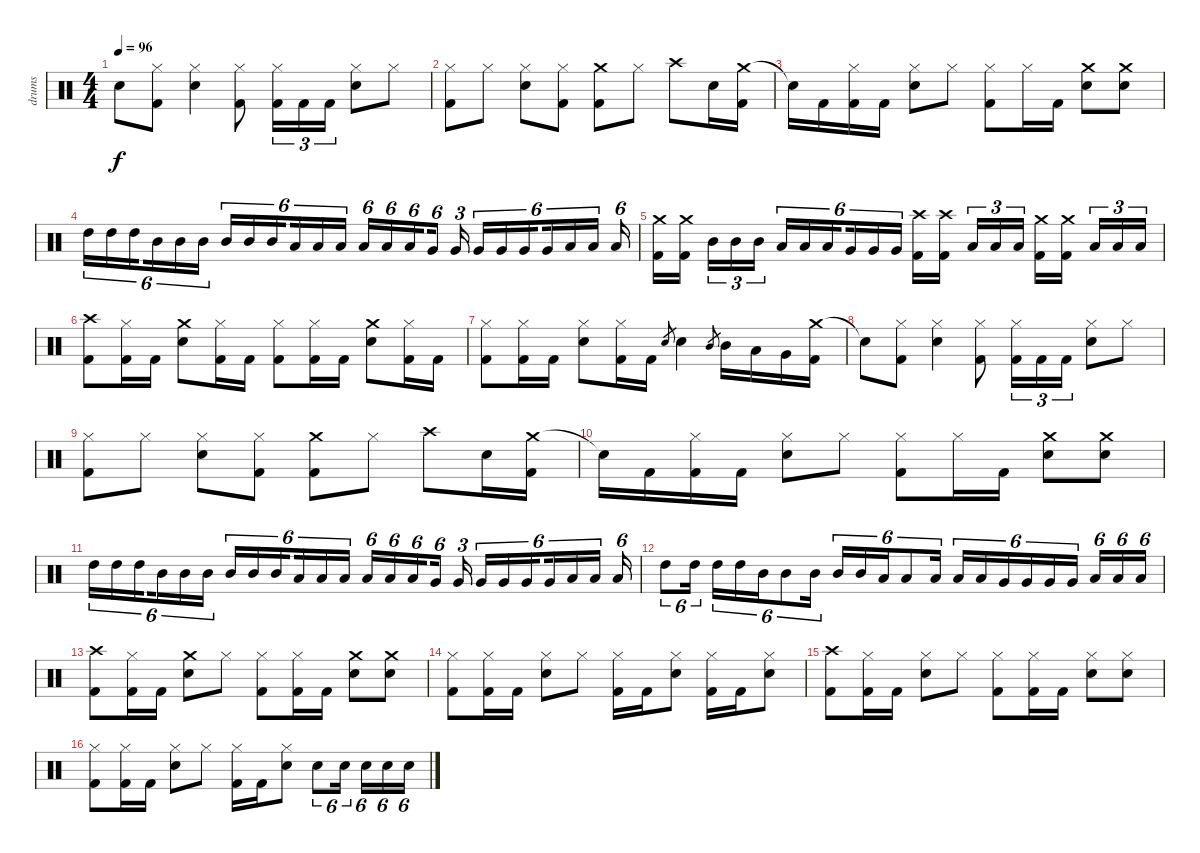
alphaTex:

\track ("drums" "drums") {instrument percussion}
\staff {score}
\articulation defaults
\ts (4 4)
\tempo 96
\clef neutral
\ks c "Snare (hit)"{t}.8{dy f}
("Hi-Hat (closed)" "Kick (hit) 2").8 ("Hi-Hat (closed)" "Electric Snare (hit)").4 ("Hi-Hat (closed)" "Kick (hit) 2").8 ("Hi-Hat (closed)" "Kick (hit) 2").16{tu (3 2)} "Kick (hit) 2".16{tu (3 2)} "Kick (hit) 2".16{tu (3 2)} ("Hi-Hat (closed)" "Electric Snare (hit)").8 "Hi-Hat (closed)".8 |
("Hi-Hat (closed)" "Kick (hit) 2").8 "Hi-Hat (closed)".8 ("Hi-Hat (closed)" "Electric Snare (hit)").8 ("Hi-Hat (closed)" "Kick (hit) 2").8 ("Crash medium (hit)" "Kick (hit) 2").8 "Hi-Hat (closed)".8 "Crash high (hit)".8 "Electric Snare (hit)".16 ("Crash medium (hit)" "Kick (hit) 2").16 |
"Snare (hit)"{t}.16 "Kick (hit) 2".16 ("Hi-Hat (closed)" "Kick (hit) 2").16 "Kick (hit) 2".16 ("Hi-Hat (closed)" "Electric Snare (hit)").8 "Hi-Hat (closed)".8 ("Hi-Hat (closed)" "Kick (hit) 2").8 "Hi-Hat (closed)".16 "Kick (hit) 2".16 ("Crash medium (hit)" "Electric Snare (hit)").8 ("Crash medium (hit)" "Electric Snare (hit)").8 |
"High Tom (hit)".16{tu (6 4)} "High Tom (hit)".16{tu (6 4)} "High Tom (hit)".16{tu (6 4) beam splitsecondary} "Mid Tom (hit)".16{tu (6 4)} "Mid Tom (hit)".16{tu (6 4)} "Mid Tom (hit)".16{tu (6 4)} "Mid Tom (hit)".16{tu (6 4)} "Mid Tom (hit)".16{tu (6 4)} "Mid Tom (hit)".16{tu (6 4) beam splitsecondary} "Low Tom (hit)".16{tu (6 4)} "Low Tom (hit)".16{tu (6 4)} "Low Tom (hit)".16{tu (6 4)} "Low Tom (hit)".16{tu (6 4)} "Low Tom (hit)".16{tu (6 4)} "Low Tom (hit)".16{tu (6 4) beam splitsecondary} "Very Low Tom (hit)".16{tu (6 4)} "Very Low Tom (hit)".16{tu (3 2)} "Very Low Tom (hit)".16{tu (6 4)} "Very Low Tom (hit)".16{tu (6 4)} "Very Low Tom (hit)".16{tu (6 4) beam splitsecondary} "Very Low Tom (hit)".16{tu (6 4)} "Low Floor Tom (hit)".16{tu (6 4)} "Low Floor Tom (hit)".16{tu (6 4) beam splitsecondary} "Low Floor Tom (hit)".16{tu (6 4)} |
("Crash medium (hit)" "Kick (hit) 2").16 ("Crash medium (hit)" "Kick (hit) 2").16{beam splitsecondary} "Mid Tom (hit)".16{tu (3 2)} "Mid Tom (hit)".16{tu (3 2)} "Mid Tom (hit)".16{tu (3 2)} "Low Tom (hit)".16{tu (6 4)} "Low Tom (hit)".16{tu (6 4)} "Low Tom (hit)".16{tu (6 4) beam splitsecondary} "Very Low Tom (hit)".16{tu (6 4)} "Very Low Tom (hit)".16{tu (6 4)} "Very Low Tom (hit)".16{tu (6 4)} ("Crash high (hit)" "Kick (hit) 2").16 ("Crash high (hit)" "Kick (hit) 2").16{beam splitsecondary} "Low Tom (hit)".16{tu (3 2)} "Low Tom (hit)".16{tu (3 2)} "Low Tom (hit)".16{tu (3 2)} ("Crash medium (hit)" "Kick (hit) 2").16 ("Crash medium (hit)" "Kick (hit) 2").16{beam splitsecondary} "Low Tom (hit)".16{tu (3 2)} "Low Tom (hit)".16{tu (3 2)} "Low Tom (hit)".16{tu (3 2)} |
("Crash high (hit)" "Kick (hit) 2").8 ("Hi-Hat (closed)" "Kick (hit) 2").16 "Kick (hit) 2".16 ("Crash medium (hit)" "Electric Snare (hit)").8 ("Hi-Hat (closed)" "Kick (hit) 2").16 "Kick (hit) 2".16 ("Hi-Hat (closed)" "Kick (hit) 2").8 ("Hi-Hat (closed)" "Kick (hit) 2").16 "Kick (hit) 2".16 ("Crash medium (hit)" "Electric Snare (hit)").8 ("Hi-Hat (closed)" "Kick (hit) 2").16 "Kick (hit) 2".16 |
("Hi-Hat (closed)" "Kick (hit) 2").8 ("Hi-Hat (closed)" "Kick (hit) 2").16 "Kick (hit) 2".16 ("Hi-Hat (closed)" "Electric Snare (hit)").8 ("Hi-Hat (closed)" "Kick (hit) 2").16 "Kick (hit) 2".16 "Electric Snare (hit)".8{gr} "Electric Snare (hit)".4 "Mid Tom (hit)".8{gr} "Mid Tom (hit)".16 "Low Tom (hit)".16 "Very Low Tom (hit)".16 ("Crash medium (hit)" "Kick (hit) 2").16 |
"Snare (hit)"{t}.8 ("Hi-Hat (closed)" "Kick (hit) 2").8 ("Hi-Hat (closed)" "Electric Snare (hit)").4 ("Hi-Hat (closed)" "Kick (hit) 2").8 ("Hi-Hat (closed)" "Kick (hit) 2").16{tu (3 2)} "Kick (hit) 2".16{tu (3 2)} "Kick (hit) 2".16{tu (3 2)} ("Hi-Hat (closed)" "Electric Snare (hit)").8 "Hi-Hat (closed)".8 |
("Hi-Hat (closed)" "Kick (hit) 2").8 "Hi-Hat (closed)".8 ("Hi-Hat (closed)" "Electric Snare (hit)").8 ("Hi-Hat (closed)" "Kick (hit) 2").8 ("Crash medium (hit)" "Kick (hit) 2").8 "Hi-Hat (closed)".8 "Crash high (hit)".8 "Electric Snare (hit)".16 ("Crash medium (hit)" "Kick (hit) 2").16 |
"Snare (hit)"{t}.16 "Kick (hit) 2".16 ("Hi-Hat (closed)" "Kick (hit) 2").16 "Kick (hit) 2".16 ("Hi-Hat (closed)" "Electric Snare (hit)").8 "Hi-Hat (closed)".8 ("Hi-Hat (closed)" "Kick (hit) 2").8 "Hi-Hat (closed)".16 "Kick (hit) 2".16 ("Crash medium (hit)" "Electric Snare (hit)").8 ("Crash medium (hit)" "Electric Snare (hit)").8 |
"High Tom (hit)".16{tu (6 4)} "High Tom (hit)".16{tu (6 4)} "High Tom (hit)".16{tu (6 4) beam splitsecondary} "Mid Tom (hit)".16{tu (6 4)} "Mid Tom (hit)".16{tu (6 4)} "Mid Tom (hit)".16{tu (6 4)} "Mid Tom (hit)".16{tu (6 4)} "Mid Tom (hit)".16{tu (6 4)} "Mid Tom (hit)".16{tu (6 4) beam splitsecondary} "Low Tom (hit)".16{tu (6 4)} "Low Tom (hit)".16{tu (6 4)} "Low Tom (hit)".16{tu (6 4)} "Low Tom (hit)".16{tu (6 4)} "Low Tom (hit)".16{tu (6 4)} "Low Tom (hit)".16{tu (6 4) beam splitsecondary} "Very Low Tom (hit)".16{tu (6 4)} "Very Low Tom (hit)".16{tu (3 2)} "Very Low Tom (hit)".16{tu (6 4)} "Very Low Tom (hit)".16{tu (6 4)} "Very Low Tom (hit)".16{tu (6 4) beam splitsecondary} "Very Low Tom (hit)".16{tu (6 4)} "Low Floor Tom (hit)".16{tu (6 4)} "Low Floor Tom (hit)".16{tu (6 4) beam splitsecondary} "Low Floor Tom (hit)".16{tu (6 4)} |
"High Tom (hit)".8{tu (6 4)} "High Tom (hit)".16{tu (6 4) beam splitsecondary} "High Tom (hit)".16{tu (6 4)} "High Tom (hit)".16{tu (6 4)} "Mid Tom (hit)".16{tu (6 4)} "Mid Tom (hit)".8{tu (6 4)} "Mid Tom (hit)".16{tu (6 4) beam splitsecondary} "Mid Tom (hit)".16{tu (6 4)} "Mid Tom (hit)".16{tu (6 4)} "Low Tom (hit)".16{tu (6 4)} "Low Tom (hit)".8{tu (6 4)} "Low Tom (hit)".16{tu (6 4) beam splitsecondary} "Low Tom (hit)".16{tu (6 4)} "Low Tom (hit)".16{tu (6 4)} "Very Low Tom (hit)".16{tu (6 4)} "Very Low Tom (hit)".16{tu (6 4)} "Very Low Tom (hit)".16{tu (6 4)} "Very Low Tom (hit)".16{tu (6 4) beam splitsecondary} "Low Floor Tom (hit)".16{tu (6 4)} "Low Floor Tom (hit)".16{tu (6 4)} "Low Floor Tom (hit)".16{tu (6 4)} |
("Crash high (hit)" "Kick (hit) 2").8 ("Hi-Hat (closed)" "Kick (hit) 2").16 "Kick (hit) 2".16 ("Crash medium (hit)" "Electric Snare (hit)").8 "Hi-Hat (closed)".8 ("Hi-Hat (closed)" "Kick (hit) 2").8 ("Hi-Hat (closed)" "Kick (hit) 2").16 "Kick (hit) 2".16 ("Crash medium (hit)" "Electric Snare (hit)").8 ("Crash medium (hit)" "Electric Snare (hit)").8 |
("Hi-Hat (closed)" "Kick (hit) 2").8 ("Hi-Hat (closed)" "Kick (hit) 2").16 "Kick (hit) 2".16 ("Hi-Hat (closed)" "Electric Snare (hit)").8 "Hi-Hat (closed)".8 ("Hi-Hat (closed)" "Kick (hit) 2").16 "Kick (hit) 2".16 ("Hi-Hat (closed)" "Electric Snare (hit)").8 ("Hi-Hat (closed)" "Kick (hit) 2").16 "Kick (hit) 2".16 ("Hi-Hat (closed)" "Electric Snare (hit)").8 |
("Crash high (hit)" "Kick (hit) 2").8 ("Hi-Hat (closed)" "Kick (hit) 2").16 "Kick (hit) 2".16 ("Hi-Hat (closed)" "Electric Snare (hit)").8 "Hi-Hat (closed)".8 ("Hi-Hat (closed)" "Kick (hit) 2").8 ("Hi-Hat (closed)" "Kick (hit) 2").16 "Kick (hit) 2".16 ("Hi-Hat (closed)" "Electric Snare (hit)").8 ("Hi-Hat (closed)" "Electric Snare (hit)").8 |
("Hi-Hat (closed)" "Kick (hit) 2").8 ("Hi-Hat (closed)" "Kick (hit) 2").16 "Kick (hit) 2".16 ("Hi-Hat (closed)" "Electric Snare (hit)").8 "Hi-Hat (closed)".8 ("Hi-Hat (closed)" "Kick (hit) 2").16 "Kick (hit) 2".16 ("Hi-Hat (closed)" "Electric Snare (hit)").8 "Electric Snare (hit)".8{tu (6 4)} "Electric Snare (hit)".16{tu (6 4) beam splitsecondary} "Electric Snare (hit)".16{tu (6 4)} "Electric Snare (hit)".16{tu (6 4)} "Electric Snare (hit)".16{tu (6 4)}
